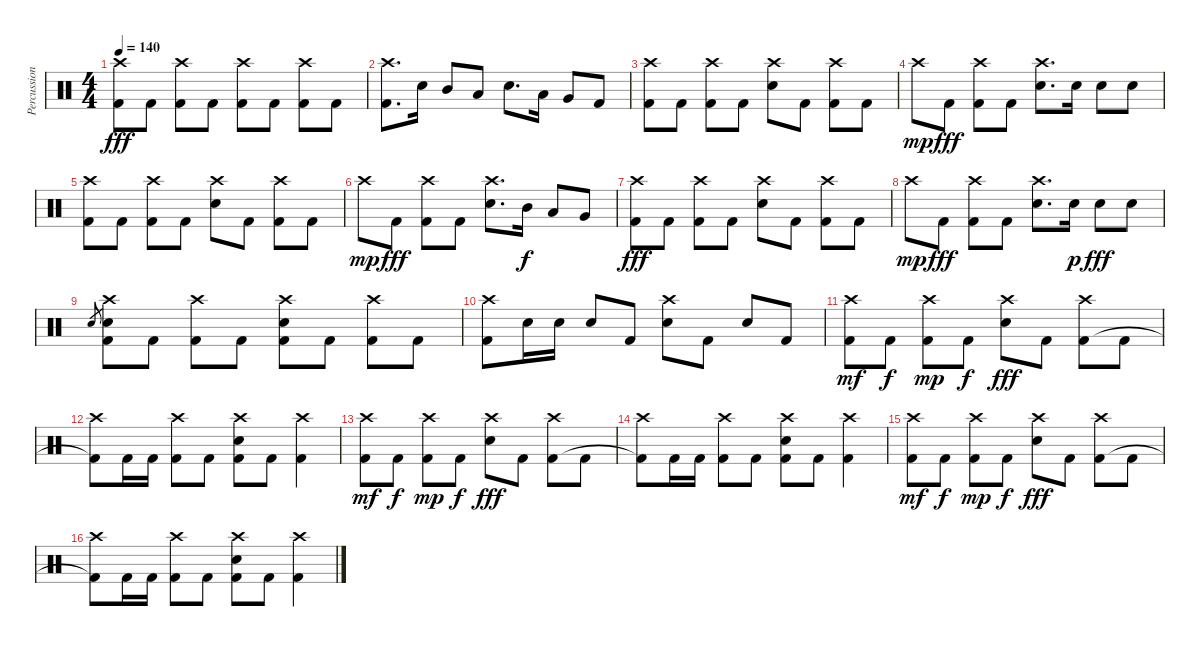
\track ("Percussion" "Percussion") {instrument percussion}
\staff {score}
\articulation defaults
\ts (4 4)
\tempo 140
\clef neutral
\ks c
("Crash high (hit)" "Kick (hit) 2").8{dy fff} "Kick (hit) 2".8 ("Crash high (hit)" "Kick (hit) 2").8 "Kick (hit) 2".8 ("Crash high (hit)" "Kick (hit) 2").8 "Kick (hit) 2".8 ("Crash high (hit)" "Kick (hit) 2").8 "Kick (hit) 2".8 |
("Crash high (hit)" "Kick (hit) 2").8{d} "Electric Snare (hit)".16 "Mid Tom (hit)".8 "Low Tom (hit)".8 "Electric Snare (hit)".8{d} "Low Tom (hit)".16 "Very Low Tom (hit)".8 "Kick (hit) 2".8 |
("Crash high (hit)" "Kick (hit) 2").8 "Kick (hit) 2".8 ("Crash high (hit)" "Kick (hit) 2").8 "Kick (hit) 2".8 ("Crash high (hit)" "Electric Snare (hit)").8 "Kick (hit) 2".8 ("Crash high (hit)" "Kick (hit) 2").8 "Kick (hit) 2".8 |
"Crash high (hit)".8{dy mp} "Kick (hit) 2".8{dy fff} ("Crash high (hit)" "Kick (hit) 2").8 "Kick (hit) 2".8 ("Crash high (hit)" "Electric Snare (hit)").8{d} "Electric Snare (hit)".16 "Electric Snare (hit)".8 "Electric Snare (hit)".8 |
("Crash high (hit)" "Kick (hit) 2").8 "Kick (hit) 2".8 ("Crash high (hit)" "Kick (hit) 2").8 "Kick (hit) 2".8 ("Crash high (hit)" "Electric Snare (hit)").8 "Kick (hit) 2".8 ("Crash high (hit)" "Kick (hit) 2").8 "Kick (hit) 2".8 |
"Crash high (hit)".8{dy mp} "Kick (hit) 2".8{dy fff} ("Crash high (hit)" "Kick (hit) 2").8 "Kick (hit) 2".8 ("Crash high (hit)" "Electric Snare (hit)").8{d} "Mid Tom (hit)".16{dy f} "Low Tom (hit)".8 "Very Low Tom (hit)".8 |
("Crash high (hit)" "Kick (hit) 2").8{dy fff} "Kick (hit) 2".8 ("Crash high (hit)" "Kick (hit) 2").8 "Kick (hit) 2".8 ("Crash high (hit)" "Electric Snare (hit)").8 "Kick (hit) 2".8 ("Crash high (hit)" "Kick (hit) 2").8 "Kick (hit) 2".8 |
"Crash high (hit)".8{dy mp} "Kick (hit) 2".8{dy fff} ("Crash high (hit)" "Kick (hit) 2").8 "Kick (hit) 2".8 ("Crash high (hit)" "Electric Snare (hit)").8{d} "Electric Snare (hit)".16{dy p} "Electric Snare (hit)".8{dy fff} "Electric Snare (hit)".8 |
"Electric Snare (hit)".8{gr} ("Crash high (hit)" "Electric Snare (hit)" "Kick (hit) 2").8 "Kick (hit) 2".8 ("Crash high (hit)" "Kick (hit) 2").8 "Kick (hit) 2".8 ("Crash high (hit)" "Electric Snare (hit)" "Kick (hit) 2").8 "Kick (hit) 2".8 ("Crash high (hit)" "Kick (hit) 2").8 "Kick (hit) 2".8 |
("Crash high (hit)" "Kick (hit) 2").8 "Electric Snare (hit)".16 "Electric Snare (hit)".16 "Electric Snare (hit)".8 "Kick (hit) 2".8 ("Crash high (hit)" "Electric Snare (hit)").8 "Kick (hit) 2".8 "Electric Snare (hit)".8 "Kick (hit) 2".8 |
("Crash high (hit)" "Kick (hit) 2").8{dy mf} "Kick (hit) 2".8{dy f} ("Crash high (hit)" "Kick (hit) 2").8{dy mp} "Kick (hit) 2".8{dy f} ("Crash high (hit)" "Electric Snare (hit)").8{dy fff} "Kick (hit) 2".8 ("Crash high (hit)" "Kick (hit) 2").8 "Kick (hit) 2".8 |
("Crash high (hit)" "Kick (hit) 2"{t}).8 "Kick (hit) 2".16 "Kick (hit) 2".16 ("Crash high (hit)" "Kick (hit) 2").8 "Kick (hit) 2".8 ("Crash high (hit)" "Electric Snare (hit)" "Kick (hit) 2").8 "Kick (hit) 2".8 ("Crash high (hit)" "Kick (hit) 2").4 |
("Crash high (hit)" "Kick (hit) 2").8{dy mf} "Kick (hit) 2".8{dy f} ("Crash high (hit)" "Kick (hit) 2").8{dy mp} "Kick (hit) 2".8{dy f} ("Crash high (hit)" "Electric Snare (hit)").8{dy fff} "Kick (hit) 2".8 ("Crash high (hit)" "Kick (hit) 2").8 "Kick (hit) 2".8 |
("Crash high (hit)" "Kick (hit) 2"{t}).8 "Kick (hit) 2".16 "Kick (hit) 2".16 ("Crash high (hit)" "Kick (hit) 2").8 "Kick (hit) 2".8 ("Crash high (hit)" "Electric Snare (hit)" "Kick (hit) 2").8 "Kick (hit) 2".8 ("Crash high (hit)" "Kick (hit) 2").4 |
("Crash high (hit)" "Kick (hit) 2").8{dy mf} "Kick (hit) 2".8{dy f} ("Crash high (hit)" "Kick (hit) 2").8{dy mp} "Kick (hit) 2".8{dy f} ("Crash high (hit)" "Electric Snare (hit)").8{dy fff} "Kick (hit) 2".8 ("Crash high (hit)" "Kick (hit) 2").8 "Kick (hit) 2".8 |
("Crash high (hit)" "Kick (hit) 2"{t}).8 "Kick (hit) 2".16 "Kick (hit) 2".16 ("Crash high (hit)" "Kick (hit) 2").8 "Kick (hit) 2".8 ("Crash high (hit)" "Electric Snare (hit)" "Kick (hit) 2").8 "Kick (hit) 2".8 ("Crash high (hit)" "Kick (hit) 2").4
